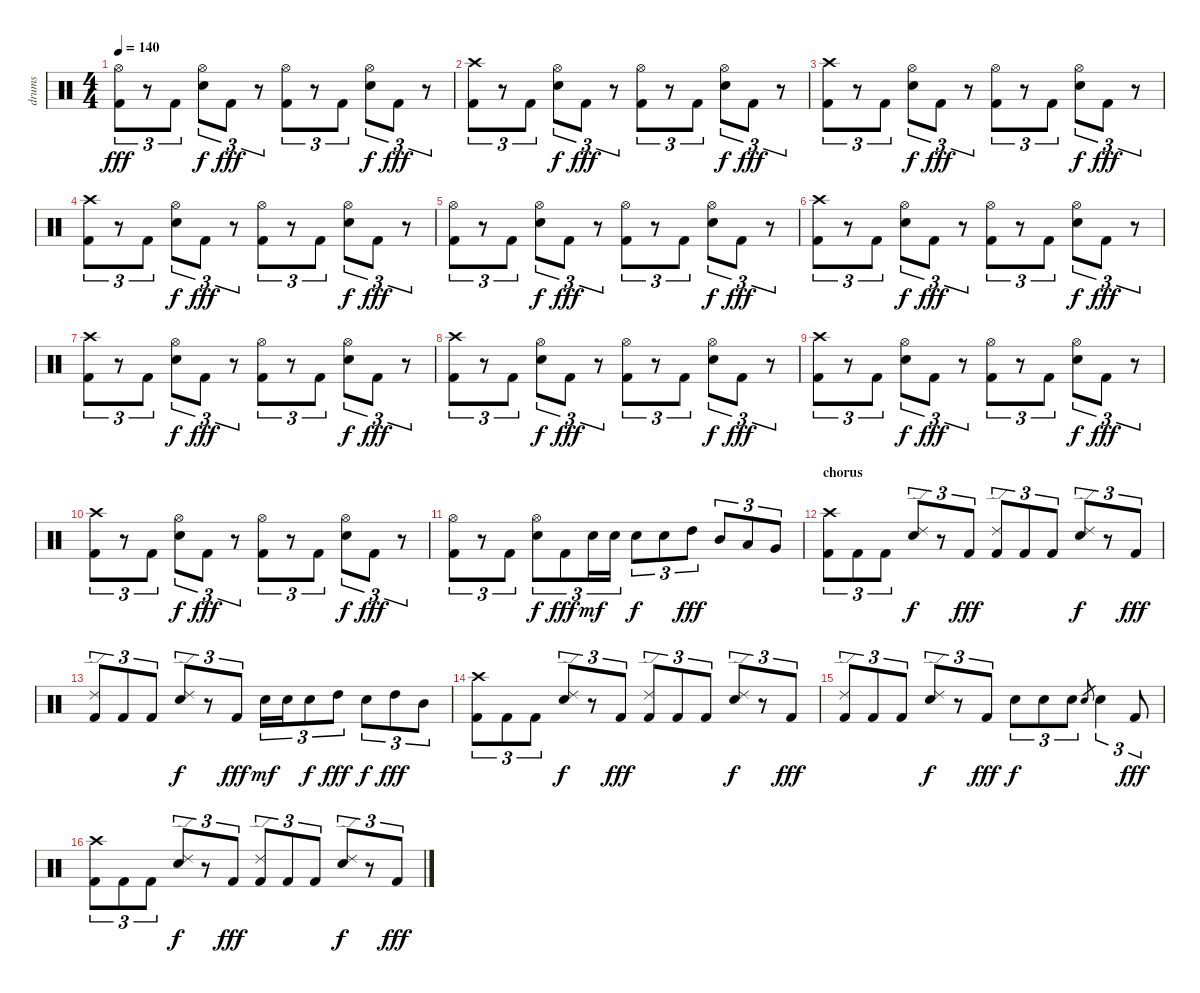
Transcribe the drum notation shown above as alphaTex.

\track ("drums" "drums") {instrument percussion}
\staff {score}
\articulation defaults
\ts (4 4)
\tempo 140
\clef neutral
\ks c
("Hi-Hat (open)" "Kick (hit) 2").8{tu (3 2) dy fff} r.8{tu (3 2)} "Kick (hit) 2".8{tu (3 2)} ("Hi-Hat (open)" "Snare (hit) 2").8{tu (3 2) dy f} "Kick (hit) 2".8{tu (3 2) dy fff} r.8{tu (3 2)} ("Hi-Hat (open)" "Kick (hit) 2").8{tu (3 2)} r.8{tu (3 2)} "Kick (hit) 2".8{tu (3 2)} ("Hi-Hat (open)" "Snare (hit) 2").8{tu (3 2) dy f} "Kick (hit) 2".8{tu (3 2) dy fff} r.8{tu (3 2)} |
("Crash high (hit)" "Kick (hit) 2").8{tu (3 2)} r.8{tu (3 2)} "Kick (hit) 2".8{tu (3 2)} ("Hi-Hat (open)" "Snare (hit) 2").8{tu (3 2) dy f} "Kick (hit) 2".8{tu (3 2) dy fff} r.8{tu (3 2)} ("Hi-Hat (open)" "Kick (hit) 2").8{tu (3 2)} r.8{tu (3 2)} "Kick (hit) 2".8{tu (3 2)} ("Hi-Hat (open)" "Snare (hit) 2").8{tu (3 2) dy f} "Kick (hit) 2".8{tu (3 2) dy fff} r.8{tu (3 2)} |
("Crash high (hit)" "Kick (hit) 2").8{tu (3 2)} r.8{tu (3 2)} "Kick (hit) 2".8{tu (3 2)} ("Hi-Hat (open)" "Snare (hit) 2").8{tu (3 2) dy f} "Kick (hit) 2".8{tu (3 2) dy fff} r.8{tu (3 2)} ("Hi-Hat (open)" "Kick (hit) 2").8{tu (3 2)} r.8{tu (3 2)} "Kick (hit) 2".8{tu (3 2)} ("Hi-Hat (open)" "Snare (hit) 2").8{tu (3 2) dy f} "Kick (hit) 2".8{tu (3 2) dy fff} r.8{tu (3 2)} |
("Crash high (hit)" "Kick (hit) 2").8{tu (3 2)} r.8{tu (3 2)} "Kick (hit) 2".8{tu (3 2)} ("Hi-Hat (open)" "Snare (hit) 2").8{tu (3 2) dy f} "Kick (hit) 2".8{tu (3 2) dy fff} r.8{tu (3 2)} ("Hi-Hat (open)" "Kick (hit) 2").8{tu (3 2)} r.8{tu (3 2)} "Kick (hit) 2".8{tu (3 2)} ("Hi-Hat (open)" "Snare (hit) 2").8{tu (3 2) dy f} "Kick (hit) 2".8{tu (3 2) dy fff} r.8{tu (3 2)} |
("Hi-Hat (open)" "Kick (hit) 2").8{tu (3 2)} r.8{tu (3 2)} "Kick (hit) 2".8{tu (3 2)} ("Hi-Hat (open)" "Snare (hit) 2").8{tu (3 2) dy f} "Kick (hit) 2".8{tu (3 2) dy fff} r.8{tu (3 2)} ("Hi-Hat (open)" "Kick (hit) 2").8{tu (3 2)} r.8{tu (3 2)} "Kick (hit) 2".8{tu (3 2)} ("Hi-Hat (open)" "Snare (hit) 2").8{tu (3 2) dy f} "Kick (hit) 2".8{tu (3 2) dy fff} r.8{tu (3 2)} |
("Crash high (hit)" "Kick (hit) 2").8{tu (3 2)} r.8{tu (3 2)} "Kick (hit) 2".8{tu (3 2)} ("Hi-Hat (open)" "Snare (hit) 2").8{tu (3 2) dy f} "Kick (hit) 2".8{tu (3 2) dy fff} r.8{tu (3 2)} ("Hi-Hat (open)" "Kick (hit) 2").8{tu (3 2)} r.8{tu (3 2)} "Kick (hit) 2".8{tu (3 2)} ("Hi-Hat (open)" "Snare (hit) 2").8{tu (3 2) dy f} "Kick (hit) 2".8{tu (3 2) dy fff} r.8{tu (3 2)} |
("Crash high (hit)" "Kick (hit) 2").8{tu (3 2)} r.8{tu (3 2)} "Kick (hit) 2".8{tu (3 2)} ("Hi-Hat (open)" "Snare (hit) 2").8{tu (3 2) dy f} "Kick (hit) 2".8{tu (3 2) dy fff} r.8{tu (3 2)} ("Hi-Hat (open)" "Kick (hit) 2").8{tu (3 2)} r.8{tu (3 2)} "Kick (hit) 2".8{tu (3 2)} ("Hi-Hat (open)" "Snare (hit) 2").8{tu (3 2) dy f} "Kick (hit) 2".8{tu (3 2) dy fff} r.8{tu (3 2)} |
("Crash high (hit)" "Kick (hit) 2").8{tu (3 2)} r.8{tu (3 2)} "Kick (hit) 2".8{tu (3 2)} ("Hi-Hat (open)" "Snare (hit) 2").8{tu (3 2) dy f} "Kick (hit) 2".8{tu (3 2) dy fff} r.8{tu (3 2)} ("Hi-Hat (open)" "Kick (hit) 2").8{tu (3 2)} r.8{tu (3 2)} "Kick (hit) 2".8{tu (3 2)} ("Hi-Hat (open)" "Snare (hit) 2").8{tu (3 2) dy f} "Kick (hit) 2".8{tu (3 2) dy fff} r.8{tu (3 2)} |
("Crash high (hit)" "Kick (hit) 2").8{tu (3 2)} r.8{tu (3 2)} "Kick (hit) 2".8{tu (3 2)} ("Hi-Hat (open)" "Snare (hit) 2").8{tu (3 2) dy f} "Kick (hit) 2".8{tu (3 2) dy fff} r.8{tu (3 2)} ("Hi-Hat (open)" "Kick (hit) 2").8{tu (3 2)} r.8{tu (3 2)} "Kick (hit) 2".8{tu (3 2)} ("Hi-Hat (open)" "Snare (hit) 2").8{tu (3 2) dy f} "Kick (hit) 2".8{tu (3 2) dy fff} r.8{tu (3 2)} |
("Crash high (hit)" "Kick (hit) 2").8{tu (3 2)} r.8{tu (3 2)} "Kick (hit) 2".8{tu (3 2)} ("Hi-Hat (open)" "Snare (hit) 2").8{tu (3 2) dy f} "Kick (hit) 2".8{tu (3 2) dy fff} r.8{tu (3 2)} ("Hi-Hat (open)" "Kick (hit) 2").8{tu (3 2)} r.8{tu (3 2)} "Kick (hit) 2".8{tu (3 2)} ("Hi-Hat (open)" "Snare (hit) 2").8{tu (3 2) dy f} "Kick (hit) 2".8{tu (3 2) dy fff} r.8{tu (3 2)} |
("Hi-Hat (open)" "Kick (hit) 2").8{tu (3 2)} r.8{tu (3 2)} "Kick (hit) 2".8{tu (3 2)} ("Hi-Hat (open)" "Snare (hit) 2").8{tu (3 2) dy f} "Kick (hit) 2".8{tu (3 2) dy fff} "Snare (hit) 2".16{tu (3 2) dy mf} "Snare (hit) 2".16{tu (3 2)} "Snare (hit) 2".8{tu (3 2) dy f} "Snare (hit) 2".8{tu (3 2)} "High Tom (hit)".8{tu (3 2) dy fff} "Mid Tom (hit)".8{tu (3 2)} "Low Tom (hit)".8{tu (3 2)} "Very Low Tom (hit)".8{tu (3 2)} |
\section ("" "chorus")
("Crash high (hit)" "Kick (hit) 2").8{tu (3 2)} "Kick (hit) 2".8{tu (3 2)} "Kick (hit) 2".8{tu (3 2)} ("Ride (edge) 2" "Snare (hit) 2").8{tu (3 2) dy f} r.8{tu (3 2)} "Kick (hit) 2".8{tu (3 2) dy fff} ("Ride (edge) 2" "Kick (hit) 2").8{tu (3 2)} "Kick (hit) 2".8{tu (3 2)} "Kick (hit) 2".8{tu (3 2)} ("Ride (edge) 2" "Snare (hit) 2").8{tu (3 2) dy f} r.8{tu (3 2)} "Kick (hit) 2".8{tu (3 2) dy fff} |
("Ride (edge) 2" "Kick (hit) 2").8{tu (3 2)} "Kick (hit) 2".8{tu (3 2)} "Kick (hit) 2".8{tu (3 2)} ("Ride (edge) 2" "Snare (hit) 2").8{tu (3 2) dy f} r.8{tu (3 2)} "Kick (hit) 2".8{tu (3 2) dy fff} "Snare (hit) 2".16{tu (3 2) dy mf} "Snare (hit) 2".16{tu (3 2)} "Snare (hit) 2".8{tu (3 2) dy f} "High Tom (hit)".8{tu (3 2) dy fff} "Snare (hit) 2".8{tu (3 2) dy f} "High Tom (hit)".8{tu (3 2) dy fff} "Mid Tom (hit)".8{tu (3 2)} |
("Crash high (hit)" "Kick (hit) 2").8{tu (3 2)} "Kick (hit) 2".8{tu (3 2)} "Kick (hit) 2".8{tu (3 2)} ("Ride (edge) 2" "Snare (hit) 2").8{tu (3 2) dy f} r.8{tu (3 2)} "Kick (hit) 2".8{tu (3 2) dy fff} ("Ride (edge) 2" "Kick (hit) 2").8{tu (3 2)} "Kick (hit) 2".8{tu (3 2)} "Kick (hit) 2".8{tu (3 2)} ("Ride (edge) 2" "Snare (hit) 2").8{tu (3 2) dy f} r.8{tu (3 2)} "Kick (hit) 2".8{tu (3 2) dy fff} |
("Ride (edge) 2" "Kick (hit) 2").8{tu (3 2)} "Kick (hit) 2".8{tu (3 2)} "Kick (hit) 2".8{tu (3 2)} ("Ride (edge) 2" "Snare (hit) 2").8{tu (3 2) dy f} r.8{tu (3 2)} "Kick (hit) 2".8{tu (3 2) dy fff} "Snare (hit) 2".8{tu (3 2) dy f} "Snare (hit) 2".8{tu (3 2)} "Snare (hit) 2".8{tu (3 2)} "Snare (hit) 2".8{gr} "Snare (hit) 2".4{tu (3 2)} "Kick (hit) 2".8{tu (3 2) dy fff} |
("Crash high (hit)" "Kick (hit) 2").8{tu (3 2)} "Kick (hit) 2".8{tu (3 2)} "Kick (hit) 2".8{tu (3 2)} ("Ride (edge) 2" "Snare (hit) 2").8{tu (3 2) dy f} r.8{tu (3 2)} "Kick (hit) 2".8{tu (3 2) dy fff} ("Ride (edge) 2" "Kick (hit) 2").8{tu (3 2)} "Kick (hit) 2".8{tu (3 2)} "Kick (hit) 2".8{tu (3 2)} ("Ride (edge) 2" "Snare (hit) 2").8{tu (3 2) dy f} r.8{tu (3 2)} "Kick (hit) 2".8{tu (3 2) dy fff}
